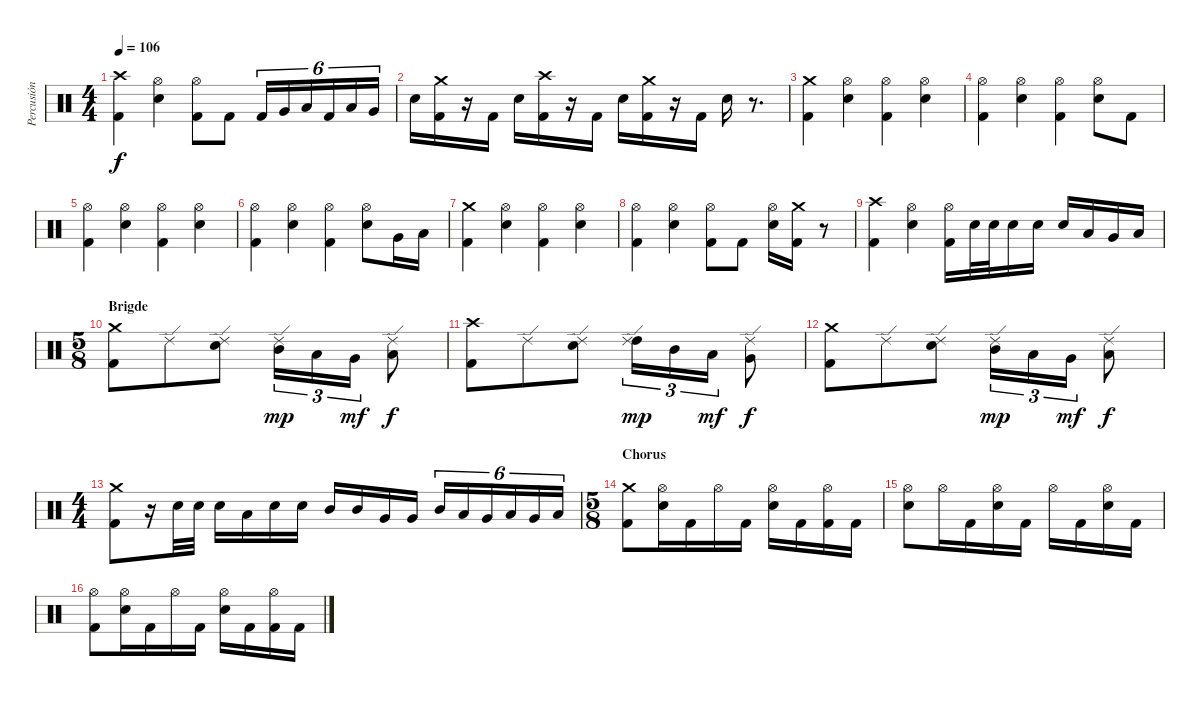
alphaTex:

\track ("Percusión" "Percusión") {instrument percussion}
\staff {score}
\articulation defaults
\ts (4 4)
\tempo 106
\clef neutral
\ks c
("Crash high (hit)" "Kick (hit) 2").4{dy f} ("Hi-Hat (open)" "Electric Snare (hit)").4 ("Hi-Hat (open)" "Kick (hit) 2").8 "Kick (hit) 2".8 "Kick (hit) 2".16{tu (6 4)} "Very Low Tom (hit)".16{tu (6 4)} "Low Floor Tom (hit)".16{tu (6 4)} "Kick (hit) 2".16{tu (6 4)} "Low Floor Tom (hit)".16{tu (6 4)} "Very Low Tom (hit)".16{tu (6 4)} |
"Electric Snare (hit)".16 ("Kick (hit) 2" "Crash medium (hit)").16 r.16 "Kick (hit) 2".16 "Electric Snare (hit)".16 ("Crash high (hit)" "Kick (hit) 2").16 r.16 "Kick (hit) 2".16 "Electric Snare (hit)".16 ("Crash medium (hit)" "Kick (hit) 2").16 r.16 "Kick (hit) 2".16 "Electric Snare (hit)".16 r.8{d} |
("Crash medium (hit)" "Kick (hit) 2").4 ("Hi-Hat (open)" "Electric Snare (hit)").4 ("Hi-Hat (open)" "Kick (hit) 2").4 ("Hi-Hat (open)" "Electric Snare (hit)").4 |
("Hi-Hat (open)" "Kick (hit) 2").4 ("Hi-Hat (open)" "Electric Snare (hit)").4 ("Hi-Hat (open)" "Kick (hit) 2").4 ("Hi-Hat (open)" "Electric Snare (hit)").8 "Kick (hit) 2".8 |
("Hi-Hat (open)" "Kick (hit) 2").4 ("Hi-Hat (open)" "Electric Snare (hit)").4 ("Hi-Hat (open)" "Kick (hit) 2").4 ("Hi-Hat (open)" "Electric Snare (hit)").4 |
("Hi-Hat (open)" "Kick (hit) 2").4 ("Hi-Hat (open)" "Electric Snare (hit)").4 ("Hi-Hat (open)" "Kick (hit) 2").4 ("Hi-Hat (open)" "Electric Snare (hit)").8 "Very Low Tom (hit)".16 "Low Floor Tom (hit)".16 |
("Crash medium (hit)" "Kick (hit) 2").4 ("Hi-Hat (open)" "Electric Snare (hit)").4 ("Hi-Hat (open)" "Kick (hit) 2").4 ("Hi-Hat (open)" "Electric Snare (hit)").4 |
("Hi-Hat (open)" "Kick (hit) 2").4 ("Hi-Hat (open)" "Electric Snare (hit)").4 ("Hi-Hat (open)" "Kick (hit) 2").8 "Kick (hit) 2".8 ("Hi-Hat (open)" "Electric Snare (hit)").16 ("Crash medium (hit)" "Kick (hit) 2").16 r.8 |
("Crash high (hit)" "Kick (hit) 2").4 ("Hi-Hat (open)" "Electric Snare (hit)").4 ("Hi-Hat (open)" "Kick (hit) 2").16 "Electric Snare (hit)".32 "Electric Snare (hit)".32 "Electric Snare (hit)".16 "Electric Snare (hit)".16 "Electric Snare (hit)".16 "Low Tom (hit)".16 "Very Low Tom (hit)".16 "Low Floor Tom (hit)".16 |
\ts (5 8)
\section ("" "Brigde")
("Crash medium (hit)" "Kick (hit) 2").8 "Ride (edge) 2".8 ("Ride (edge) 2" "Electric Snare (hit)").8 ("Ride (edge) 2" "Mid Tom (hit)").16{tu (3 2) dy mp} "Low Tom (hit)".16{tu (3 2)} "Very Low Tom (hit)".16{tu (3 2) dy mf} ("Ride (edge) 2" "Low Floor Tom (hit)").8{dy f} |
("Crash high (hit)" "Kick (hit) 2").8 "Ride (edge) 2".8 ("Ride (edge) 2" "Electric Snare (hit)").8 ("High Tom (hit)" "Ride (edge) 2").16{tu (3 2) dy mp} "Mid Tom (hit)".16{tu (3 2)} "Low Tom (hit)".16{tu (3 2) dy mf} ("Very Low Tom (hit)" "Ride (edge) 2").8{dy f} |
("Crash medium (hit)" "Kick (hit) 2").8 "Ride (edge) 2".8 ("Ride (edge) 2" "Electric Snare (hit)").8 ("Ride (edge) 2" "Mid Tom (hit)").16{tu (3 2) dy mp} "Low Tom (hit)".16{tu (3 2)} "Very Low Tom (hit)".16{tu (3 2) dy mf} ("Ride (edge) 2" "Low Floor Tom (hit)").8{dy f} |
\ts (4 4)
("Crash medium (hit)" "Kick (hit) 2").8 r.16 "Electric Snare (hit)".32 "Electric Snare (hit)".32 "Electric Snare (hit)".16 "Low Tom (hit)".16 "Electric Snare (hit)".16 "Electric Snare (hit)".16 "Mid Tom (hit)".16 "Mid Tom (hit)".16 "Very Low Tom (hit)".16 "Very Low Tom (hit)".16 "Mid Tom (hit)".16{tu (6 4)} "Low Tom (hit)".16{tu (6 4)} "Very Low Tom (hit)".16{tu (6 4)} "Low Tom (hit)".16{tu (6 4)} "Very Low Tom (hit)".16{tu (6 4)} "Low Floor Tom (hit)".16{tu (6 4)} |
\ts (5 8)
\section ("" "Chorus")
("Kick (hit) 2" "Crash medium (hit)").8 ("Electric Snare (hit)" "Hi-Hat (open)").16 "Kick (hit) 2".16 "Hi-Hat (open)".16 "Kick (hit) 2".16 ("Electric Snare (hit)" "Hi-Hat (open)").16 "Kick (hit) 2".16 ("Kick (hit) 2" "Hi-Hat (open)").16 "Kick (hit) 2".16 |
("Electric Snare (hit)" "Hi-Hat (open)").8 "Hi-Hat (open)".16 "Kick (hit) 2".16 ("Electric Snare (hit)" "Hi-Hat (open)").16 "Kick (hit) 2".16 "Hi-Hat (open)".16 "Kick (hit) 2".16 ("Electric Snare (hit)" "Hi-Hat (open)").16 "Kick (hit) 2".16 |
("Kick (hit) 2" "Hi-Hat (open)").8 ("Electric Snare (hit)" "Hi-Hat (open)").16 "Kick (hit) 2".16 "Hi-Hat (open)".16 "Kick (hit) 2".16 ("Electric Snare (hit)" "Hi-Hat (open)").16 "Kick (hit) 2".16 ("Kick (hit) 2" "Hi-Hat (open)").16 "Kick (hit) 2".16
